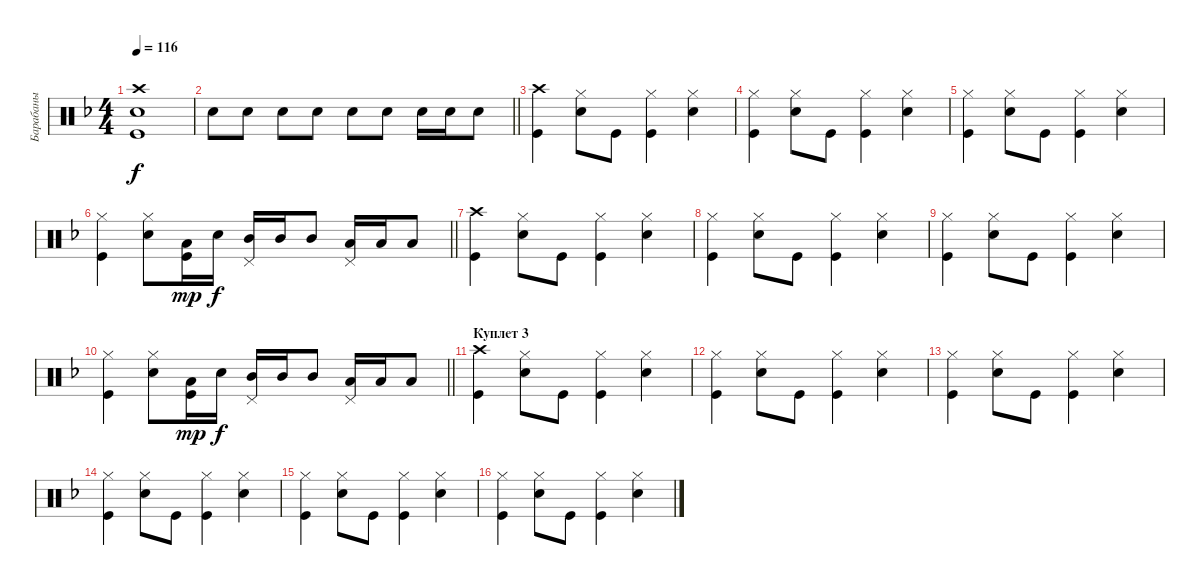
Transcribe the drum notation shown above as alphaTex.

\track ("Барабаны" "Барабаны") {instrument percussion}
\staff {score}
\articulation defaults
\ts (4 4)
\tempo 116
\clef neutral
\ks dminor
("Kick (hit)" "Crash high (hit)" "Snare (hit) 2").1{dy f} |
\barLineRight lightlight "Snare (hit) 2".8 "Snare (hit) 2".8 "Snare (hit) 2".8 "Snare (hit) 2".8 "Snare (hit) 2".8 "Snare (hit) 2".8 "Snare (hit) 2".16 "Snare (hit) 2".16 "Snare (hit) 2".8
|
("Kick (hit)" "Crash high (hit)").4 ("Hi-Hat (closed)" "Snare (hit) 2").8 "Kick (hit)".8 ("Hi-Hat (closed)" "Kick (hit)").4 ("Hi-Hat (closed)" "Snare (hit) 2").4 |
("Hi-Hat (closed)" "Kick (hit)").4 ("Hi-Hat (closed)" "Snare (hit) 2").8 "Kick (hit)".8 ("Hi-Hat (closed)" "Kick (hit)").4 ("Hi-Hat (closed)" "Snare (hit) 2").4 |
("Hi-Hat (closed)" "Kick (hit)").4 ("Hi-Hat (closed)" "Snare (hit) 2").8 "Kick (hit)".8 ("Hi-Hat (closed)" "Kick (hit)").4 ("Hi-Hat (closed)" "Snare (hit) 2").4 |
\barLineRight lightlight
("Hi-Hat (closed)" "Kick (hit)").4 ("Hi-Hat (closed)" "Snare (hit) 2").8 ("Low Floor Tom (hit)" "Kick (hit)").16{dy mp} "Snare (hit) 2".16{dy f} ("Mid Tom (hit)" "Pedal Hi-Hat (hit)").16 "Mid Tom (hit)".16 "Mid Tom (hit)".8 ("Pedal Hi-Hat (hit)" "Low Tom (hit)").16 "Low Tom (hit)".16 "Low Tom (hit)".8 |
("Kick (hit)" "Crash high (hit)").4 ("Hi-Hat (closed)" "Snare (hit) 2").8 "Kick (hit)".8 ("Hi-Hat (closed)" "Kick (hit)").4 ("Hi-Hat (closed)" "Snare (hit) 2").4 |
("Hi-Hat (closed)" "Kick (hit)").4 ("Hi-Hat (closed)" "Snare (hit) 2").8 "Kick (hit)".8 ("Hi-Hat (closed)" "Kick (hit)").4 ("Hi-Hat (closed)" "Snare (hit) 2").4 |
("Hi-Hat (closed)" "Kick (hit)").4 ("Hi-Hat (closed)" "Snare (hit) 2").8 "Kick (hit)".8 ("Hi-Hat (closed)" "Kick (hit)").4 ("Hi-Hat (closed)" "Snare (hit) 2").4 |
\barLineRight lightlight
("Hi-Hat (closed)" "Kick (hit)").4 ("Hi-Hat (closed)" "Snare (hit) 2").8 ("Low Floor Tom (hit)" "Kick (hit)").16{dy mp} "Snare (hit) 2".16{dy f} ("Mid Tom (hit)" "Pedal Hi-Hat (hit)").16 "Mid Tom (hit)".16 "Mid Tom (hit)".8 ("Pedal Hi-Hat (hit)" "Low Tom (hit)").16 "Low Tom (hit)".16 "Low Tom (hit)".8 |
\section ("" "Куплет 3")
("Crash high (hit)" "Kick (hit)").4 ("Hi-Hat (closed)" "Snare (hit) 2").8 "Kick (hit)".8 ("Hi-Hat (closed)" "Kick (hit)").4 ("Hi-Hat (closed)" "Snare (hit) 2").4 |
("Hi-Hat (closed)" "Kick (hit)").4 ("Hi-Hat (closed)" "Snare (hit) 2").8 "Kick (hit)".8 ("Hi-Hat (closed)" "Kick (hit)").4 ("Hi-Hat (closed)" "Snare (hit) 2").4 |
("Hi-Hat (closed)" "Kick (hit)").4 ("Hi-Hat (closed)" "Snare (hit) 2").8 "Kick (hit)".8 ("Hi-Hat (closed)" "Kick (hit)").4 ("Hi-Hat (closed)" "Snare (hit) 2").4 |
("Hi-Hat (closed)" "Kick (hit)").4 ("Hi-Hat (closed)" "Snare (hit) 2").8 "Kick (hit)".8 ("Hi-Hat (closed)" "Kick (hit)").4 ("Hi-Hat (closed)" "Snare (hit) 2").4 |
("Hi-Hat (closed)" "Kick (hit)").4 ("Hi-Hat (closed)" "Snare (hit) 2").8 "Kick (hit)".8 ("Hi-Hat (closed)" "Kick (hit)").4 ("Hi-Hat (closed)" "Snare (hit) 2").4 |
("Hi-Hat (closed)" "Kick (hit)").4 ("Hi-Hat (closed)" "Snare (hit) 2").8 "Kick (hit)".8 ("Hi-Hat (closed)" "Kick (hit)").4 ("Hi-Hat (closed)" "Snare (hit) 2").4
